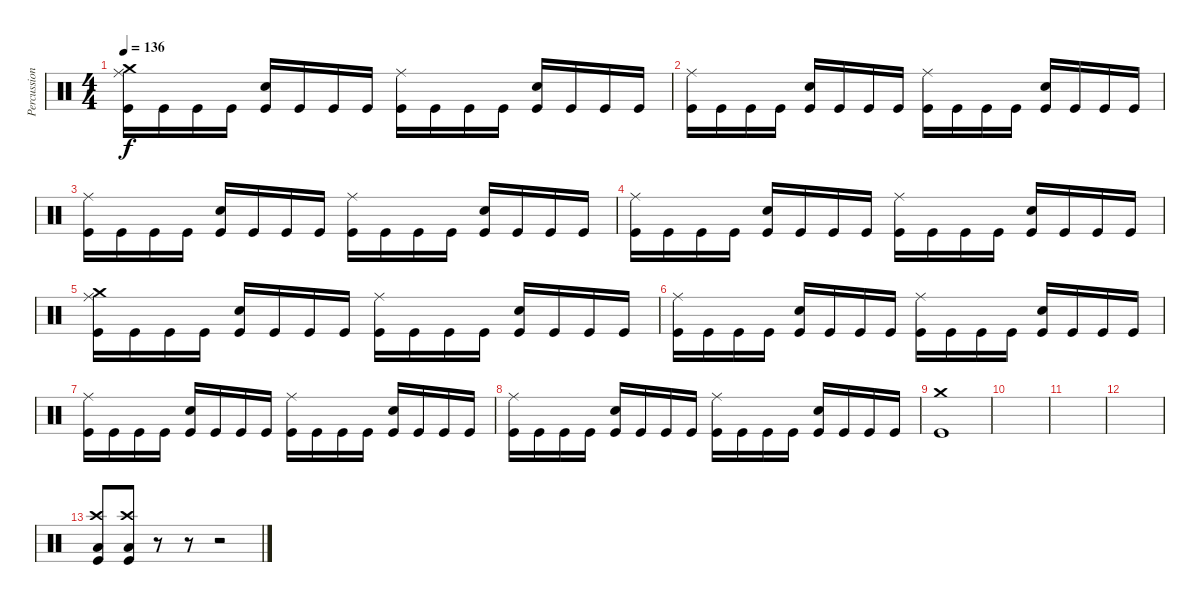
\track ("Percussion IV" "Percussion") {instrument percussion}
\staff {score}
\articulation defaults
\ts (4 4)
\tempo 136
\clef neutral
\ks c
("Crash medium (hit)" "Ride (middle)" "Kick (hit)").16{dy f} "Kick (hit)".16 "Kick (hit)".16 "Kick (hit)".16 ("Electric Snare (hit)" "Kick (hit)").16 "Kick (hit)".16 "Kick (hit)".16 "Kick (hit)".16 ("Ride (middle)" "Kick (hit)").16 "Kick (hit)".16 "Kick (hit)".16 "Kick (hit)".16 ("Electric Snare (hit)" "Kick (hit)").16 "Kick (hit)".16 "Kick (hit)".16 "Kick (hit)".16 |
("Ride (middle)" "Kick (hit)").16 "Kick (hit)".16 "Kick (hit)".16 "Kick (hit)".16 ("Electric Snare (hit)" "Kick (hit)").16 "Kick (hit)".16 "Kick (hit)".16 "Kick (hit)".16 ("Ride (middle)" "Kick (hit)").16 "Kick (hit)".16 "Kick (hit)".16 "Kick (hit)".16 ("Electric Snare (hit)" "Kick (hit)").16 "Kick (hit)".16 "Kick (hit)".16 "Kick (hit)".16 |
("Ride (middle)" "Kick (hit)").16 "Kick (hit)".16 "Kick (hit)".16 "Kick (hit)".16 ("Electric Snare (hit)" "Kick (hit)").16 "Kick (hit)".16 "Kick (hit)".16 "Kick (hit)".16 ("Ride (middle)" "Kick (hit)").16 "Kick (hit)".16 "Kick (hit)".16 "Kick (hit)".16 ("Electric Snare (hit)" "Kick (hit)").16 "Kick (hit)".16 "Kick (hit)".16 "Kick (hit)".16 |
("Ride (middle)" "Kick (hit)").16 "Kick (hit)".16 "Kick (hit)".16 "Kick (hit)".16 ("Electric Snare (hit)" "Kick (hit)").16 "Kick (hit)".16 "Kick (hit)".16 "Kick (hit)".16 ("Ride (middle)" "Kick (hit)").16 "Kick (hit)".16 "Kick (hit)".16 "Kick (hit)".16 ("Electric Snare (hit)" "Kick (hit)").16 "Kick (hit)".16 "Kick (hit)".16 "Kick (hit)".16 |
("Crash medium (hit)" "Ride (middle)" "Kick (hit)").16 "Kick (hit)".16 "Kick (hit)".16 "Kick (hit)".16 ("Electric Snare (hit)" "Kick (hit)").16 "Kick (hit)".16 "Kick (hit)".16 "Kick (hit)".16 ("Ride (middle)" "Kick (hit)").16 "Kick (hit)".16 "Kick (hit)".16 "Kick (hit)".16 ("Electric Snare (hit)" "Kick (hit)").16 "Kick (hit)".16 "Kick (hit)".16 "Kick (hit)".16 |
("Ride (middle)" "Kick (hit)").16 "Kick (hit)".16 "Kick (hit)".16 "Kick (hit)".16 ("Electric Snare (hit)" "Kick (hit)").16 "Kick (hit)".16 "Kick (hit)".16 "Kick (hit)".16 ("Ride (middle)" "Kick (hit)").16 "Kick (hit)".16 "Kick (hit)".16 "Kick (hit)".16 ("Electric Snare (hit)" "Kick (hit)").16 "Kick (hit)".16 "Kick (hit)".16 "Kick (hit)".16 |
("Ride (middle)" "Kick (hit)").16 "Kick (hit)".16 "Kick (hit)".16 "Kick (hit)".16 ("Electric Snare (hit)" "Kick (hit)").16 "Kick (hit)".16 "Kick (hit)".16 "Kick (hit)".16 ("Ride (middle)" "Kick (hit)").16 "Kick (hit)".16 "Kick (hit)".16 "Kick (hit)".16 ("Electric Snare (hit)" "Kick (hit)").16 "Kick (hit)".16 "Kick (hit)".16 "Kick (hit)".16 |
("Ride (middle)" "Kick (hit)").16 "Kick (hit)".16 "Kick (hit)".16 "Kick (hit)".16 ("Electric Snare (hit)" "Kick (hit)").16 "Kick (hit)".16 "Kick (hit)".16 "Kick (hit)".16 ("Ride (middle)" "Kick (hit)").16 "Kick (hit)".16 "Kick (hit)".16 "Kick (hit)".16 ("Electric Snare (hit)" "Kick (hit)").16 "Kick (hit)".16 "Kick (hit)".16 "Kick (hit)".16 |
("Crash medium (hit)" "Kick (hit)").1 |
|
|
|
("Crash high (hit)" "Low Floor Tom (hit)" "Kick (hit)").8 ("Crash high (hit)" "Low Floor Tom (hit)" "Kick (hit)").8 r.8 r.8 r.2
